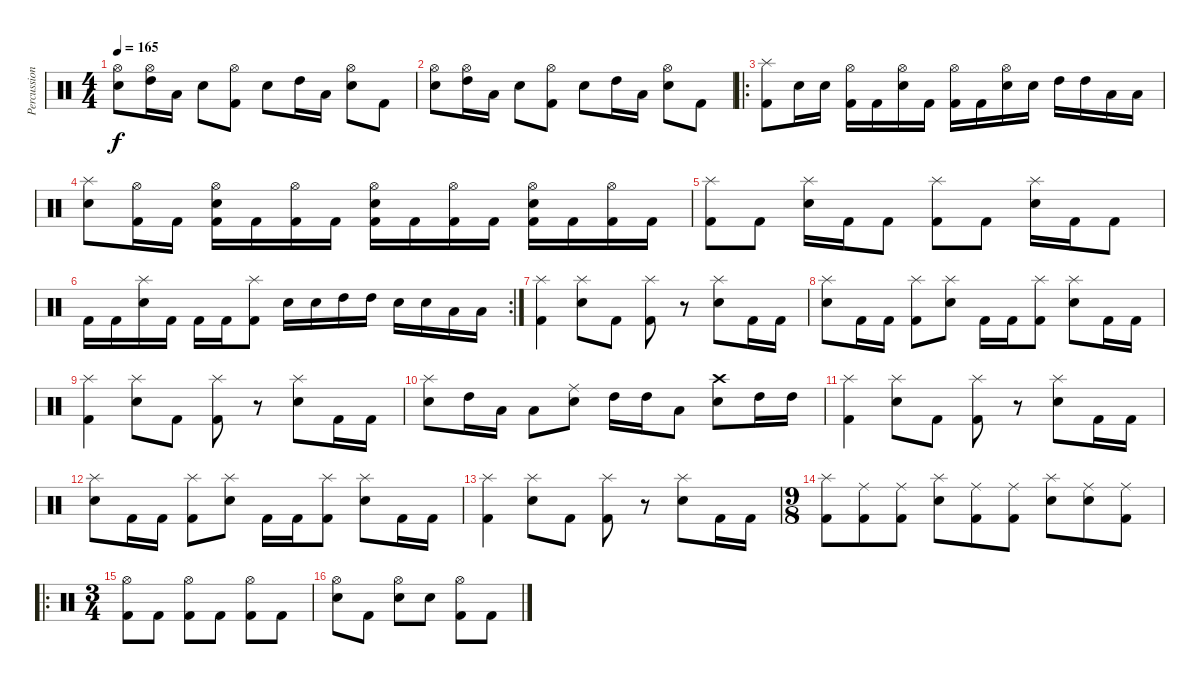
\track ("Percussion" "Percussion") {instrument percussion}
\staff {score}
\articulation defaults
\ts (4 4)
\tempo 165
\clef neutral
\ks c
("Hi-Hat (open)" "Electric Snare (hit)").8{dy f} ("Hi-Hat (open)" "High Tom (hit)").16 "Low Tom (hit)".16 "Electric Snare (hit)".8 ("Hi-Hat (open)" "Kick (hit) 2").8 "Electric Snare (hit)".8 "High Tom (hit)".16 "Low Tom (hit)".16 ("Hi-Hat (open)" "Electric Snare (hit)").8 "Kick (hit) 2".8 |
("Hi-Hat (open)" "Electric Snare (hit)").8 ("Hi-Hat (open)" "High Tom (hit)").16 "Low Tom (hit)".16 "Electric Snare (hit)".8 ("Hi-Hat (open)" "Kick (hit) 2").8 "Electric Snare (hit)".8 "High Tom (hit)".16 "Low Tom (hit)".16 ("Hi-Hat (open)" "Electric Snare (hit)").8 "Kick (hit) 2".8 |
\ro
("Splash (hit)" "Kick (hit) 2").8 "Electric Snare (hit)".16 "Electric Snare (hit)".16 ("Hi-Hat (open)" "Kick (hit) 2").16 "Kick (hit) 2".16 ("Hi-Hat (open)" "Electric Snare (hit)").16 "Kick (hit) 2".16 ("Hi-Hat (open)" "Kick (hit) 2").16 "Kick (hit) 2".16 ("Hi-Hat (open)" "Electric Snare (hit)").16 "Electric Snare (hit)".16 "High Tom (hit)".16 "High Tom (hit)".16 "Low Tom (hit)".16 "Low Tom (hit)".16 |
("Splash (hit)" "Electric Snare (hit)").8 ("Hi-Hat (open)" "Kick (hit) 2").16 "Kick (hit) 2".16 ("Hi-Hat (open)" "Electric Snare (hit)" "Kick (hit) 2").16 "Kick (hit) 2".16 ("Hi-Hat (open)" "Kick (hit) 2").16 "Kick (hit) 2".16 ("Hi-Hat (open)" "Electric Snare (hit)" "Kick (hit) 2").16 "Kick (hit) 2".16 ("Hi-Hat (open)" "Kick (hit) 2").16 "Kick (hit) 2".16 ("Hi-Hat (open)" "Electric Snare (hit)" "Kick (hit) 2").16 "Kick (hit) 2".16 ("Hi-Hat (open)" "Kick (hit) 2").16 "Kick (hit) 2".16 |
("Splash (hit)" "Kick (hit) 2").8 "Kick (hit) 2".8 ("Splash (hit)" "Electric Snare (hit)").16 "Kick (hit) 2".16 "Kick (hit) 2".8 ("Splash (hit)" "Kick (hit) 2").8 "Kick (hit) 2".8 ("Splash (hit)" "Electric Snare (hit)").16 "Kick (hit) 2".16 "Kick (hit) 2".8 |
\rc 2 "Kick (hit) 2".16 "Kick (hit) 2".16
("Splash (hit)" "Electric Snare (hit)").16 "Kick (hit) 2".16 "Kick (hit) 2".16 "Kick (hit) 2".16 ("Splash (hit)" "Kick (hit) 2").8 "Electric Snare (hit)".16 "Electric Snare (hit)".16 "High Tom (hit)".16 "High Tom (hit)".16 "Electric Snare (hit)".16 "Electric Snare (hit)".16 "Low Tom (hit)".16 "Low Tom (hit)".16 |
("Splash (hit)" "Kick (hit) 2").4 ("Splash (hit)" "Electric Snare (hit)").8 "Kick (hit) 2".8 ("Splash (hit)" "Kick (hit) 2").8 r.8 ("Splash (hit)" "Electric Snare (hit)").8 "Kick (hit) 2".16 "Kick (hit) 2".16 |
("Splash (hit)" "Electric Snare (hit)").8 "Kick (hit) 2".16 "Kick (hit) 2".16 ("Splash (hit)" "Kick (hit) 2").8 ("Splash (hit)" "Electric Snare (hit)").8 "Kick (hit) 2".16 "Kick (hit) 2".16 ("Splash (hit)" "Kick (hit) 2").8 ("Splash (hit)" "Electric Snare (hit)").8 "Kick (hit) 2".16 "Kick (hit) 2".16 |
("Splash (hit)" "Kick (hit) 2").4 ("Splash (hit)" "Electric Snare (hit)").8 "Kick (hit) 2".8 ("Splash (hit)" "Kick (hit) 2").8 r.8 ("Splash (hit)" "Electric Snare (hit)").8 "Kick (hit) 2".16 "Kick (hit) 2".16 |
("Splash (hit)" "Electric Snare (hit)").8 "High Tom (hit)".16 "Low Tom (hit)".16 "Low Floor Tom (hit)".8 ("Ride (middle)" "Electric Snare (hit)").8 "High Tom (hit)".16 "High Tom (hit)".16 "Low Floor Tom (hit)".8 ("Crash high (hit)" "Electric Snare (hit)").8 "High Tom (hit)".16 "High Tom (hit)".16 |
("Splash (hit)" "Kick (hit) 2").4 ("Splash (hit)" "Electric Snare (hit)").8 "Kick (hit) 2".8 ("Splash (hit)" "Kick (hit) 2").8 r.8 ("Splash (hit)" "Electric Snare (hit)").8 "Kick (hit) 2".16 "Kick (hit) 2".16 |
("Splash (hit)" "Electric Snare (hit)").8 "Kick (hit) 2".16 "Kick (hit) 2".16 ("Splash (hit)" "Kick (hit) 2").8 ("Splash (hit)" "Electric Snare (hit)").8 "Kick (hit) 2".16 "Kick (hit) 2".16 ("Splash (hit)" "Kick (hit) 2").8 ("Splash (hit)" "Electric Snare (hit)").8 "Kick (hit) 2".16 "Kick (hit) 2".16 |
("Splash (hit)" "Kick (hit) 2").4 ("Splash (hit)" "Electric Snare (hit)").8 "Kick (hit) 2".8 ("Splash (hit)" "Kick (hit) 2").8 r.8 ("Splash (hit)" "Electric Snare (hit)").8 "Kick (hit) 2".16 "Kick (hit) 2".16 |
\ts (9 8)
("Splash (hit)" "Kick (hit) 2").8 ("Ride (middle)" "Kick (hit) 2").8 ("Ride (middle)" "Kick (hit) 2").8 ("Splash (hit)" "Electric Snare (hit)").8 ("Ride (middle)" "Kick (hit) 2").8 ("Ride (middle)" "Kick (hit) 2").8 ("Splash (hit)" "Electric Snare (hit)").8 ("Ride (middle)" "Electric Snare (hit)").8 ("Ride (middle)" "Kick (hit) 2").8 |
\ro
\ts (3 4)
("Hi-Hat (open)" "Kick (hit) 2").8 "Kick (hit) 2".8 ("Hi-Hat (open)" "Kick (hit) 2").8 "Kick (hit) 2".8 ("Hi-Hat (open)" "Kick (hit) 2").8 "Kick (hit) 2".8 |
("Hi-Hat (open)" "Electric Snare (hit)").8 "Kick (hit) 2".8 ("Hi-Hat (open)" "Electric Snare (hit)").8 "Electric Snare (hit)".8 ("Hi-Hat (open)" "Kick (hit) 2").8 "Kick (hit) 2".8
